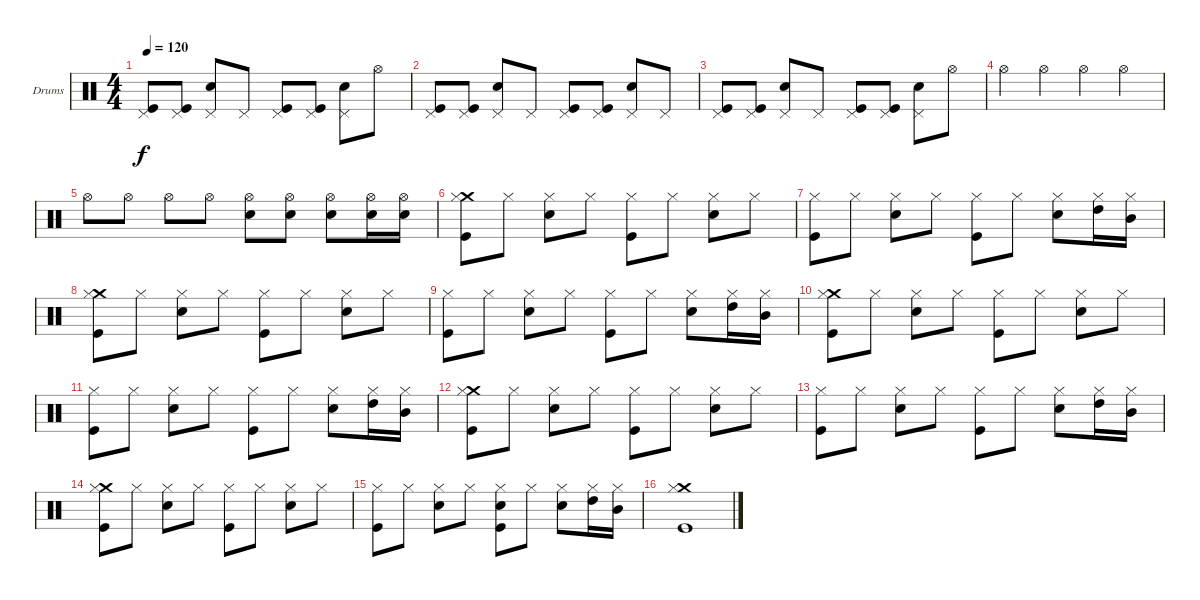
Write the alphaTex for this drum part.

\bracketExtendMode groupsimilarinstruments
\firstSystemTrackNameOrientation horizontal
\otherSystemsTrackNameOrientation horizontal
\track ("Drumkit" "Drums") {instrument percussion}
\staff {score}
\articulation defaults
\ts (4 4)
\tempo 120
\clef neutral
\ks c
("Pedal Hi-Hat (hit)" "Kick (hit)").8{dy f} ("Pedal Hi-Hat (hit)" "Kick (hit)").8 ("Pedal Hi-Hat (hit)" "Snare (hit) 2").8 "Pedal Hi-Hat (hit)".8 ("Pedal Hi-Hat (hit)" "Kick (hit)").8 ("Pedal Hi-Hat (hit)" "Kick (hit)").8 ("Pedal Hi-Hat (hit)" "Snare (hit) 2").8 "Hi-Hat (open)".8 |
("Pedal Hi-Hat (hit)" "Kick (hit)").8 ("Pedal Hi-Hat (hit)" "Kick (hit)").8 ("Pedal Hi-Hat (hit)" "Snare (hit) 2").8 "Pedal Hi-Hat (hit)".8 ("Pedal Hi-Hat (hit)" "Kick (hit)").8 ("Pedal Hi-Hat (hit)" "Kick (hit)").8 ("Pedal Hi-Hat (hit)" "Snare (hit) 2").8 "Pedal Hi-Hat (hit)".8 |
("Pedal Hi-Hat (hit)" "Kick (hit)").8 ("Pedal Hi-Hat (hit)" "Kick (hit)").8 ("Pedal Hi-Hat (hit)" "Snare (hit) 2").8 "Pedal Hi-Hat (hit)".8 ("Pedal Hi-Hat (hit)" "Kick (hit)").8 ("Pedal Hi-Hat (hit)" "Kick (hit)").8 ("Pedal Hi-Hat (hit)" "Snare (hit) 2").8 "Hi-Hat (open)".8 |
"Hi-Hat (open)".4 "Hi-Hat (open)".4 "Hi-Hat (open)".4 "Hi-Hat (open)".4 |
"Hi-Hat (open)".8 "Hi-Hat (open)".8 "Hi-Hat (open)".8 "Hi-Hat (open)".8 ("Snare (hit) 2" "Hi-Hat (open)").8 ("Snare (hit) 2" "Hi-Hat (open)").8 ("Snare (hit) 2" "Hi-Hat (open)").8 ("Snare (hit) 2" "Hi-Hat (open)").16 ("Snare (hit) 2" "Hi-Hat (open)").16 |
("Crash medium (hit)" "Kick (hit)" "Hi-Hat (closed)").8 "Hi-Hat (closed)".8 ("Snare (hit) 2" "Hi-Hat (closed)").8 "Hi-Hat (closed)".8 ("Kick (hit)" "Hi-Hat (closed)").8 "Hi-Hat (closed)".8 ("Snare (hit) 2" "Hi-Hat (closed)").8 "Hi-Hat (closed)".8 |
("Kick (hit)" "Hi-Hat (closed)").8 "Hi-Hat (closed)".8 ("Snare (hit) 2" "Hi-Hat (closed)").8 "Hi-Hat (closed)".8 ("Kick (hit)" "Hi-Hat (closed)").8 "Hi-Hat (closed)".8 ("Snare (hit) 2" "Hi-Hat (closed)").8 ("High Tom (hit)" "Hi-Hat (closed)").16 ("Mid Tom (hit)" "Hi-Hat (closed)").16 |
("Crash medium (hit)" "Kick (hit)" "Hi-Hat (closed)").8 "Hi-Hat (closed)".8 ("Snare (hit) 2" "Hi-Hat (closed)").8 "Hi-Hat (closed)".8 ("Kick (hit)" "Hi-Hat (closed)").8 "Hi-Hat (closed)".8 ("Snare (hit) 2" "Hi-Hat (closed)").8 "Hi-Hat (closed)".8 |
("Kick (hit)" "Hi-Hat (closed)").8 "Hi-Hat (closed)".8 ("Snare (hit) 2" "Hi-Hat (closed)").8 "Hi-Hat (closed)".8 ("Kick (hit)" "Hi-Hat (closed)").8 "Hi-Hat (closed)".8 ("Snare (hit) 2" "Hi-Hat (closed)").8 ("High Tom (hit)" "Hi-Hat (closed)").16 ("Mid Tom (hit)" "Hi-Hat (closed)").16 |
("Crash medium (hit)" "Kick (hit)" "Hi-Hat (closed)").8 "Hi-Hat (closed)".8 ("Snare (hit) 2" "Hi-Hat (closed)").8 "Hi-Hat (closed)".8 ("Kick (hit)" "Hi-Hat (closed)").8 "Hi-Hat (closed)".8 ("Snare (hit) 2" "Hi-Hat (closed)").8 "Hi-Hat (closed)".8 |
("Kick (hit)" "Hi-Hat (closed)").8 "Hi-Hat (closed)".8 ("Snare (hit) 2" "Hi-Hat (closed)").8 "Hi-Hat (closed)".8 ("Kick (hit)" "Hi-Hat (closed)").8 "Hi-Hat (closed)".8 ("Snare (hit) 2" "Hi-Hat (closed)").8 ("High Tom (hit)" "Hi-Hat (closed)").16 ("Mid Tom (hit)" "Hi-Hat (closed)").16 |
("Crash medium (hit)" "Kick (hit)" "Hi-Hat (closed)").8 "Hi-Hat (closed)".8 ("Snare (hit) 2" "Hi-Hat (closed)").8 "Hi-Hat (closed)".8 ("Kick (hit)" "Hi-Hat (closed)").8 "Hi-Hat (closed)".8 ("Snare (hit) 2" "Hi-Hat (closed)").8 "Hi-Hat (closed)".8 |
("Kick (hit)" "Hi-Hat (closed)").8 "Hi-Hat (closed)".8 ("Snare (hit) 2" "Hi-Hat (closed)").8 "Hi-Hat (closed)".8 ("Kick (hit)" "Hi-Hat (closed)").8 "Hi-Hat (closed)".8 ("Snare (hit) 2" "Hi-Hat (closed)").8 ("High Tom (hit)" "Hi-Hat (closed)").16 ("Mid Tom (hit)" "Hi-Hat (closed)").16 |
("Crash medium (hit)" "Kick (hit)" "Hi-Hat (closed)").8 "Hi-Hat (closed)".8 ("Snare (hit) 2" "Hi-Hat (closed)").8 "Hi-Hat (closed)".8 ("Kick (hit)" "Hi-Hat (closed)").8 "Hi-Hat (closed)".8 ("Snare (hit) 2" "Hi-Hat (closed)").8 "Hi-Hat (closed)".8 |
("Kick (hit)" "Hi-Hat (closed)").8 "Hi-Hat (closed)".8 ("Snare (hit) 2" "Hi-Hat (closed)").8 "Hi-Hat (closed)".8 ("Snare (hit) 2" "Kick (hit)" "Hi-Hat (closed)").8 "Hi-Hat (closed)".8 ("Snare (hit) 2" "Hi-Hat (closed)").8 ("High Tom (hit)" "Hi-Hat (closed)").16 ("Mid Tom (hit)" "Hi-Hat (closed)").16 |
("Crash medium (hit)" "Kick (hit)" "Hi-Hat (closed)").1
